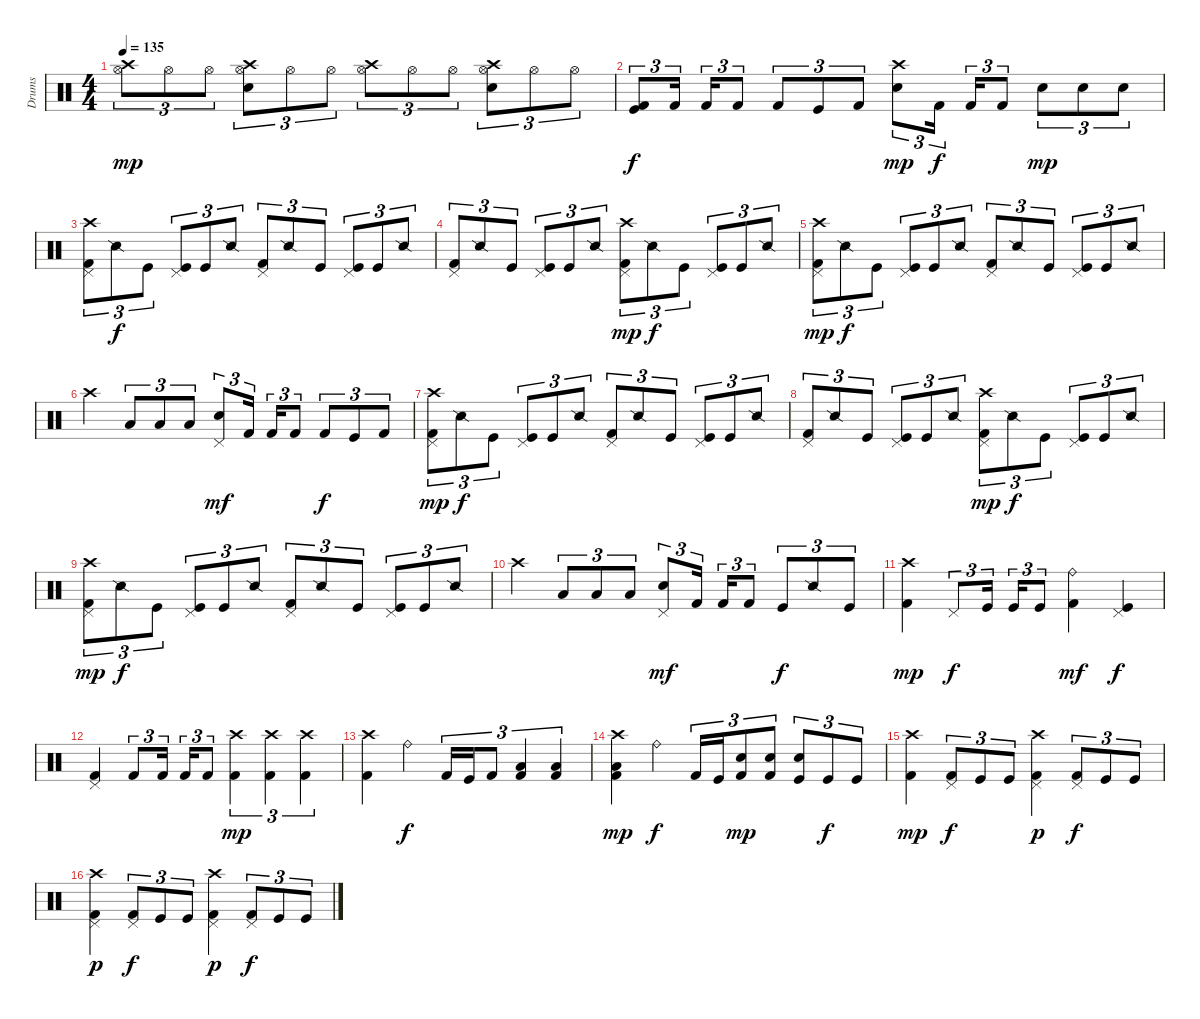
\track ("Drums" "Drums") {instrument percussion}
\staff {score}
\articulation defaults
\ts (4 4)
\tempo 135
\clef neutral
\ks c
("Hi-Hat (open)" "Crash high (hit)").8{tu (3 2) dy mp} "Hi-Hat (open)".8{tu (3 2)} "Hi-Hat (open)".8{tu (3 2)} ("Hi-Hat (open)" "Snare (hit) 2" "Crash high (hit)").8{tu (3 2)} "Hi-Hat (open)".8{tu (3 2)} "Hi-Hat (open)".8{tu (3 2)} ("Hi-Hat (open)" "Crash high (hit)").8{tu (3 2)} "Hi-Hat (open)".8{tu (3 2)} "Hi-Hat (open)".8{tu (3 2)} ("Hi-Hat (open)" "Snare (hit) 2" "Crash high (hit)").8{tu (3 2)} "Hi-Hat (open)".8{tu (3 2)} "Hi-Hat (open)".8{tu (3 2)} |
("Kick (hit) 2" "Kick (hit)").8{tu (3 2) dy f} "Kick (hit) 2".16{tu (3 2)} "Kick (hit) 2".16{tu (3 2)} "Kick (hit) 2".8{tu (3 2)} "Kick (hit) 2".8{tu (3 2)} "Kick (hit)".8{tu (3 2)} "Kick (hit) 2".8{tu (3 2)} ("Snare (hit) 2" "Crash high (hit)").8{tu (3 2) dy mp} "Kick (hit) 2".16{tu (3 2) dy f} "Kick (hit) 2".16{tu (3 2)} "Kick (hit) 2".8{tu (3 2)} "Snare (hit) 2".8{tu (3 2) dy mp} "Snare (hit) 2".8{tu (3 2)} "Snare (hit) 2".8{tu (3 2)} |
("Kick (hit) 2" "Crash high (hit)" "Pedal Hi-Hat (hit)").8{tu (3 2)} "Snare (side stick) 2".8{tu (3 2) dy f} "Kick (hit)".8{tu (3 2)} ("Kick (hit)" "Pedal Hi-Hat (hit)").8{tu (3 2)} "Kick (hit)".8{tu (3 2)} "Snare (side stick) 2".8{tu (3 2)} ("Kick (hit) 2" "Pedal Hi-Hat (hit)").8{tu (3 2)} "Snare (side stick) 2".8{tu (3 2)} "Kick (hit)".8{tu (3 2)} ("Kick (hit)" "Pedal Hi-Hat (hit)").8{tu (3 2)} "Kick (hit)".8{tu (3 2)} "Snare (side stick) 2".8{tu (3 2)} |
("Kick (hit) 2" "Pedal Hi-Hat (hit)").8{tu (3 2)} "Snare (side stick) 2".8{tu (3 2)} "Kick (hit)".8{tu (3 2)} ("Kick (hit)" "Pedal Hi-Hat (hit)").8{tu (3 2)} "Kick (hit)".8{tu (3 2)} "Snare (side stick) 2".8{tu (3 2)} ("Kick (hit) 2" "Pedal Hi-Hat (hit)" "Crash high (hit)").8{tu (3 2) dy mp} "Snare (side stick) 2".8{tu (3 2) dy f} "Kick (hit)".8{tu (3 2)} ("Kick (hit)" "Pedal Hi-Hat (hit)").8{tu (3 2)} "Kick (hit)".8{tu (3 2)} "Snare (side stick) 2".8{tu (3 2)} |
("Kick (hit) 2" "Crash high (hit)" "Pedal Hi-Hat (hit)").8{tu (3 2) dy mp} "Snare (side stick) 2".8{tu (3 2) dy f} "Kick (hit)".8{tu (3 2)} ("Kick (hit)" "Pedal Hi-Hat (hit)").8{tu (3 2)} "Kick (hit)".8{tu (3 2)} "Snare (side stick) 2".8{tu (3 2)} ("Kick (hit) 2" "Pedal Hi-Hat (hit)").8{tu (3 2)} "Snare (side stick) 2".8{tu (3 2)} "Kick (hit)".8{tu (3 2)} ("Kick (hit)" "Pedal Hi-Hat (hit)").8{tu (3 2)} "Kick (hit)".8{tu (3 2)} "Snare (side stick) 2".8{tu (3 2)} |
"Crash high (hit)".4 "Low Floor Tom (hit)".8{tu (3 2)} "Low Floor Tom (hit)".8{tu (3 2)} "Low Floor Tom (hit)".8{tu (3 2)} ("Snare (hit) 2" "Pedal Hi-Hat (hit)").8{tu (3 2) dy mf} "Kick (hit) 2".16{tu (3 2)} "Kick (hit) 2".16{tu (3 2)} "Kick (hit) 2".8{tu (3 2)} "Kick (hit) 2".8{tu (3 2) dy f} "Kick (hit)".8{tu (3 2)} "Kick (hit) 2".8{tu (3 2)} |
("Kick (hit) 2" "Crash high (hit)" "Pedal Hi-Hat (hit)").8{tu (3 2) dy mp} "Snare (side stick) 2".8{tu (3 2) dy f} "Kick (hit)".8{tu (3 2)} ("Kick (hit)" "Pedal Hi-Hat (hit)").8{tu (3 2)} "Kick (hit)".8{tu (3 2)} "Snare (side stick) 2".8{tu (3 2)} ("Kick (hit) 2" "Pedal Hi-Hat (hit)").8{tu (3 2)} "Snare (side stick) 2".8{tu (3 2)} "Kick (hit)".8{tu (3 2)} ("Kick (hit)" "Pedal Hi-Hat (hit)").8{tu (3 2)} "Kick (hit)".8{tu (3 2)} "Snare (side stick) 2".8{tu (3 2)} |
("Kick (hit) 2" "Pedal Hi-Hat (hit)").8{tu (3 2)} "Snare (side stick) 2".8{tu (3 2)} "Kick (hit)".8{tu (3 2)} ("Kick (hit)" "Pedal Hi-Hat (hit)").8{tu (3 2)} "Kick (hit)".8{tu (3 2)} "Snare (side stick) 2".8{tu (3 2)} ("Kick (hit) 2" "Pedal Hi-Hat (hit)" "Crash high (hit)").8{tu (3 2) dy mp} "Snare (side stick) 2".8{tu (3 2) dy f} "Kick (hit)".8{tu (3 2)} ("Kick (hit)" "Pedal Hi-Hat (hit)").8{tu (3 2)} "Kick (hit)".8{tu (3 2)} "Snare (side stick) 2".8{tu (3 2)} |
("Kick (hit) 2" "Crash high (hit)" "Pedal Hi-Hat (hit)").8{tu (3 2) dy mp} "Snare (side stick) 2".8{tu (3 2) dy f} "Kick (hit)".8{tu (3 2)} ("Kick (hit)" "Pedal Hi-Hat (hit)").8{tu (3 2)} "Kick (hit)".8{tu (3 2)} "Snare (side stick) 2".8{tu (3 2)} ("Kick (hit) 2" "Pedal Hi-Hat (hit)").8{tu (3 2)} "Snare (side stick) 2".8{tu (3 2)} "Kick (hit)".8{tu (3 2)} ("Kick (hit)" "Pedal Hi-Hat (hit)").8{tu (3 2)} "Kick (hit)".8{tu (3 2)} "Snare (side stick) 2".8{tu (3 2)} |
"Crash high (hit)".4 "Low Floor Tom (hit)".8{tu (3 2)} "Low Floor Tom (hit)".8{tu (3 2)} "Low Floor Tom (hit)".8{tu (3 2)} ("Snare (hit) 2" "Pedal Hi-Hat (hit)").8{tu (3 2) dy mf} "Kick (hit) 2".16{tu (3 2)} "Kick (hit) 2".16{tu (3 2)} "Kick (hit) 2".8{tu (3 2)} "Kick (hit)".8{tu (3 2) dy f} "Snare (side stick) 2".8{tu (3 2)} "Kick (hit)".8{tu (3 2)} |
("Crash high (hit)" "Kick (hit) 2").4{dy mp} "Pedal Hi-Hat (hit)".8{tu (3 2) dy f} "Kick (hit)".16{tu (3 2)} "Kick (hit)".16{tu (3 2)} "Kick (hit)".8{tu (3 2)} ("Kick (hit) 2" "Ride (bell)").4{dy mf} ("Pedal Hi-Hat (hit)" "Kick (hit)").4{dy f} |
("Kick (hit) 2" "Pedal Hi-Hat (hit)").4 "Kick (hit) 2".8{tu (3 2)} "Kick (hit) 2".16{tu (3 2)} "Kick (hit) 2".16{tu (3 2)} "Kick (hit) 2".8{tu (3 2)} ("Kick (hit) 2" "Crash high (hit)").4{tu (3 2) dy mp} ("Kick (hit) 2" "Crash high (hit)").4{tu (3 2)} ("Kick (hit) 2" "Crash high (hit)").4{tu (3 2)} |
("Kick (hit) 2" "Crash high (hit)").4 "Ride (bell)".4{dy f} "Kick (hit) 2".16{tu (3 2)} "Kick (hit)".16{tu (3 2)} "Kick (hit) 2".8{tu (3 2)} ("Kick (hit) 2" "Low Floor Tom (hit)").4{tu (3 2)} ("Kick (hit) 2" "Low Floor Tom (hit)").4{tu (3 2)} |
("Kick (hit) 2" "Low Floor Tom (hit)" "Crash high (hit)").4{dy mp} "Ride (bell)".4{dy f} "Kick (hit) 2".16{tu (3 2)} "Kick (hit)".16{tu (3 2)} ("Kick (hit) 2" "Electric Snare (hit)").8{tu (3 2) dy mp} ("Kick (hit) 2" "Electric Snare (hit)").8{tu (3 2)} ("Kick (hit)" "Electric Snare (hit)").8{tu (3 2)} "Kick (hit)".8{tu (3 2) dy f} "Kick (hit)".8{tu (3 2)} |
("Crash high (hit)" "Kick (hit) 2").4{dy mp} ("Kick (hit) 2" "Pedal Hi-Hat (hit)").8{tu (3 2) dy f} "Kick (hit)".8{tu (3 2)} "Kick (hit)".8{tu (3 2)} ("Kick (hit) 2" "Pedal Hi-Hat (hit)" "Crash high (hit)").4{dy p} ("Kick (hit) 2" "Pedal Hi-Hat (hit)").8{tu (3 2) dy f} "Kick (hit)".8{tu (3 2)} "Kick (hit)".8{tu (3 2)} |
("Kick (hit) 2" "Pedal Hi-Hat (hit)" "Crash high (hit)").4{dy p} ("Kick (hit) 2" "Pedal Hi-Hat (hit)").8{tu (3 2) dy f} "Kick (hit)".8{tu (3 2)} "Kick (hit)".8{tu (3 2)} ("Kick (hit) 2" "Pedal Hi-Hat (hit)" "Crash high (hit)").4{dy p} ("Kick (hit) 2" "Pedal Hi-Hat (hit)").8{tu (3 2) dy f} "Kick (hit)".8{tu (3 2)} "Kick (hit)".8{tu (3 2)}
